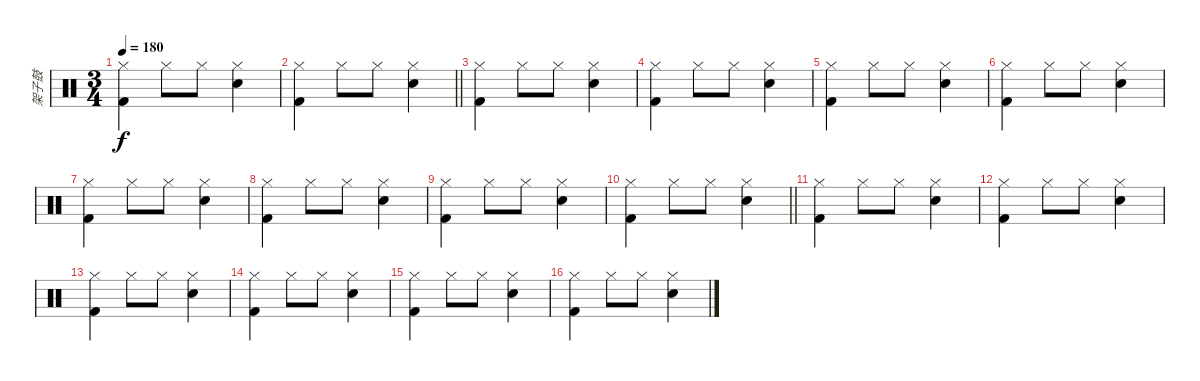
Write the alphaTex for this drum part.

\track ("架子鼓" "架子鼓") {instrument percussion}
\staff {score}
\articulation defaults
\ts (3 4)
\tempo 180
\clef neutral
\ks c
("Hi-Hat (closed)" "Kick (hit) 2").4{dy f} "Hi-Hat (closed)".8 "Hi-Hat (closed)".8 ("Hi-Hat (closed)" "Electric Snare (hit)").4 |
\barLineRight lightlight
("Hi-Hat (closed)" "Kick (hit) 2").4 "Hi-Hat (closed)".8 "Hi-Hat (closed)".8 ("Hi-Hat (closed)" "Electric Snare (hit)").4 |
("Hi-Hat (closed)" "Kick (hit) 2").4 "Hi-Hat (closed)".8 "Hi-Hat (closed)".8 ("Hi-Hat (closed)" "Electric Snare (hit)").4 |
("Hi-Hat (closed)" "Kick (hit) 2").4 "Hi-Hat (closed)".8 "Hi-Hat (closed)".8 ("Hi-Hat (closed)" "Electric Snare (hit)").4 |
("Hi-Hat (closed)" "Kick (hit) 2").4 "Hi-Hat (closed)".8 "Hi-Hat (closed)".8 ("Hi-Hat (closed)" "Electric Snare (hit)").4 |
("Hi-Hat (closed)" "Kick (hit) 2").4 "Hi-Hat (closed)".8 "Hi-Hat (closed)".8 ("Hi-Hat (closed)" "Electric Snare (hit)").4 |
("Hi-Hat (closed)" "Kick (hit) 2").4 "Hi-Hat (closed)".8 "Hi-Hat (closed)".8 ("Hi-Hat (closed)" "Electric Snare (hit)").4 |
("Hi-Hat (closed)" "Kick (hit) 2").4 "Hi-Hat (closed)".8 "Hi-Hat (closed)".8 ("Hi-Hat (closed)" "Electric Snare (hit)").4 |
("Hi-Hat (closed)" "Kick (hit) 2").4 "Hi-Hat (closed)".8 "Hi-Hat (closed)".8 ("Hi-Hat (closed)" "Electric Snare (hit)").4 |
\barLineRight lightlight
("Hi-Hat (closed)" "Kick (hit) 2").4 "Hi-Hat (closed)".8 "Hi-Hat (closed)".8 ("Hi-Hat (closed)" "Electric Snare (hit)").4 |
("Hi-Hat (closed)" "Kick (hit) 2").4 "Hi-Hat (closed)".8 "Hi-Hat (closed)".8 ("Hi-Hat (closed)" "Electric Snare (hit)").4 |
("Hi-Hat (closed)" "Kick (hit) 2").4 "Hi-Hat (closed)".8 "Hi-Hat (closed)".8 ("Hi-Hat (closed)" "Electric Snare (hit)").4 |
("Hi-Hat (closed)" "Kick (hit) 2").4 "Hi-Hat (closed)".8 "Hi-Hat (closed)".8 ("Hi-Hat (closed)" "Electric Snare (hit)").4 |
("Hi-Hat (closed)" "Kick (hit) 2").4 "Hi-Hat (closed)".8 "Hi-Hat (closed)".8 ("Hi-Hat (closed)" "Electric Snare (hit)").4 |
("Hi-Hat (closed)" "Kick (hit) 2").4 "Hi-Hat (closed)".8 "Hi-Hat (closed)".8 ("Hi-Hat (closed)" "Electric Snare (hit)").4 |
("Hi-Hat (closed)" "Kick (hit) 2").4 "Hi-Hat (closed)".8 "Hi-Hat (closed)".8 ("Hi-Hat (closed)" "Electric Snare (hit)").4
